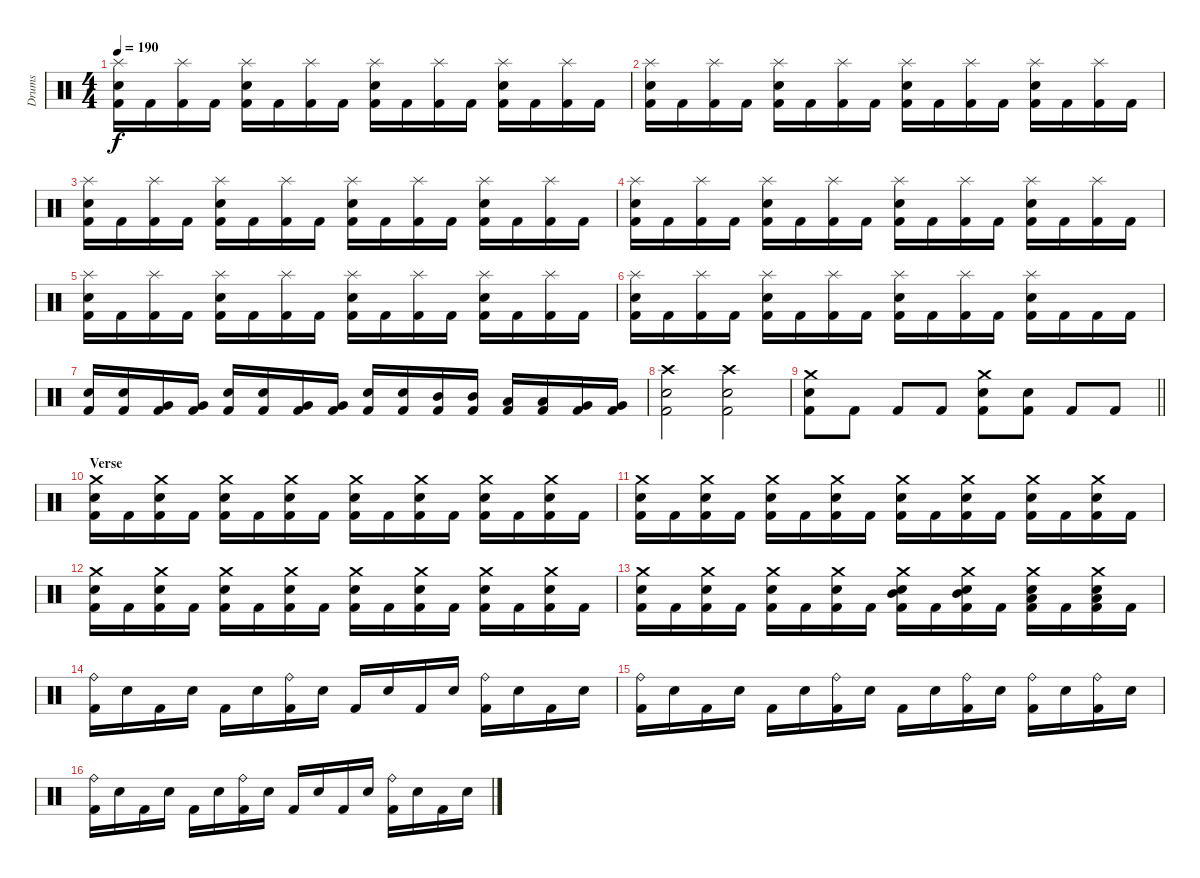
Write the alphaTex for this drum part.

\track ("Drums" "Drums") {instrument percussion}
\staff {score}
\articulation defaults
\ts (4 4)
\tempo 190
\clef neutral
\ks c
("Splash (hit)" "Snare (hit) 2" "Kick (hit) 2").16{dy f} "Kick (hit) 2".16 ("Splash (hit)" "Kick (hit) 2").16 "Kick (hit) 2".16 ("Splash (hit)" "Snare (hit) 2" "Kick (hit) 2").16 "Kick (hit) 2".16 ("Splash (hit)" "Kick (hit) 2").16 "Kick (hit) 2".16 ("Splash (hit)" "Snare (hit) 2" "Kick (hit) 2").16 "Kick (hit) 2".16 ("Splash (hit)" "Kick (hit) 2").16 "Kick (hit) 2".16 ("Splash (hit)" "Snare (hit) 2" "Kick (hit) 2").16 "Kick (hit) 2".16 ("Splash (hit)" "Kick (hit) 2").16 "Kick (hit) 2".16 |
("Splash (hit)" "Snare (hit) 2" "Kick (hit) 2").16 "Kick (hit) 2".16 ("Splash (hit)" "Kick (hit) 2").16 "Kick (hit) 2".16 ("Splash (hit)" "Snare (hit) 2" "Kick (hit) 2").16 "Kick (hit) 2".16 ("Splash (hit)" "Kick (hit) 2").16 "Kick (hit) 2".16 ("Splash (hit)" "Snare (hit) 2" "Kick (hit) 2").16 "Kick (hit) 2".16 ("Splash (hit)" "Kick (hit) 2").16 "Kick (hit) 2".16 ("Splash (hit)" "Snare (hit) 2" "Kick (hit) 2").16 "Kick (hit) 2".16 ("Splash (hit)" "Kick (hit) 2").16 "Kick (hit) 2".16 |
("Splash (hit)" "Snare (hit) 2" "Kick (hit) 2").16 "Kick (hit) 2".16 ("Splash (hit)" "Kick (hit) 2").16 "Kick (hit) 2".16 ("Splash (hit)" "Snare (hit) 2" "Kick (hit) 2").16 "Kick (hit) 2".16 ("Splash (hit)" "Kick (hit) 2").16 "Kick (hit) 2".16 ("Splash (hit)" "Snare (hit) 2" "Kick (hit) 2").16 "Kick (hit) 2".16 ("Splash (hit)" "Kick (hit) 2").16 "Kick (hit) 2".16 ("Splash (hit)" "Snare (hit) 2" "Kick (hit) 2").16 "Kick (hit) 2".16 ("Splash (hit)" "Kick (hit) 2").16 "Kick (hit) 2".16 |
("Splash (hit)" "Snare (hit) 2" "Kick (hit) 2").16 "Kick (hit) 2".16 ("Splash (hit)" "Kick (hit) 2").16 "Kick (hit) 2".16 ("Splash (hit)" "Snare (hit) 2" "Kick (hit) 2").16 "Kick (hit) 2".16 ("Splash (hit)" "Kick (hit) 2").16 "Kick (hit) 2".16 ("Splash (hit)" "Snare (hit) 2" "Kick (hit) 2").16 "Kick (hit) 2".16 ("Splash (hit)" "Kick (hit) 2").16 "Kick (hit) 2".16 ("Splash (hit)" "Snare (hit) 2" "Kick (hit) 2").16 "Kick (hit) 2".16 ("Splash (hit)" "Kick (hit) 2").16 "Kick (hit) 2".16 |
("Splash (hit)" "Snare (hit) 2" "Kick (hit) 2").16 "Kick (hit) 2".16 ("Splash (hit)" "Kick (hit) 2").16 "Kick (hit) 2".16 ("Splash (hit)" "Snare (hit) 2" "Kick (hit) 2").16 "Kick (hit) 2".16 ("Splash (hit)" "Kick (hit) 2").16 "Kick (hit) 2".16 ("Splash (hit)" "Snare (hit) 2" "Kick (hit) 2").16 "Kick (hit) 2".16 ("Splash (hit)" "Kick (hit) 2").16 "Kick (hit) 2".16 ("Splash (hit)" "Snare (hit) 2" "Kick (hit) 2").16 "Kick (hit) 2".16 ("Splash (hit)" "Kick (hit) 2").16 "Kick (hit) 2".16 |
("Splash (hit)" "Snare (hit) 2" "Kick (hit) 2").16 "Kick (hit) 2".16 ("Splash (hit)" "Kick (hit) 2").16 "Kick (hit) 2".16 ("Splash (hit)" "Snare (hit) 2" "Kick (hit) 2").16 "Kick (hit) 2".16 ("Splash (hit)" "Kick (hit) 2").16 "Kick (hit) 2".16 ("Splash (hit)" "Snare (hit) 2" "Kick (hit) 2").16 "Kick (hit) 2".16 ("Splash (hit)" "Kick (hit) 2").16 "Kick (hit) 2".16 ("Splash (hit)" "Snare (hit) 2" "Kick (hit) 2").16 "Kick (hit) 2".16 "Kick (hit) 2".16 "Kick (hit) 2".16 |
("Snare (hit) 2" "Kick (hit) 2").16 ("Snare (hit) 2" "Kick (hit) 2").16 ("Very Low Tom (hit)" "Kick (hit) 2").16 ("Very Low Tom (hit)" "Kick (hit) 2").16 ("Snare (hit) 2" "Kick (hit) 2").16 ("Snare (hit) 2" "Kick (hit) 2").16 ("Very Low Tom (hit)" "Kick (hit) 2").16 ("Very Low Tom (hit)" "Kick (hit) 2").16 ("Snare (hit) 2" "Kick (hit) 2").16 ("Snare (hit) 2" "Kick (hit) 2").16 ("Mid Tom (hit)" "Kick (hit) 2").16 ("Mid Tom (hit)" "Kick (hit) 2").16 ("Low Tom (hit)" "Kick (hit) 2").16 ("Low Tom (hit)" "Kick (hit) 2").16 ("Very Low Tom (hit)" "Kick (hit) 2").16 ("Very Low Tom (hit)" "Kick (hit) 2").16 |
("Crash high (hit)" "Snare (hit) 2" "Kick (hit) 2").2 ("Crash high (hit)" "Snare (hit) 2" "Kick (hit) 2").2 |
\barLineRight lightlight
("Crash medium (hit)" "Snare (hit) 2" "Kick (hit) 2").8 "Kick (hit) 2".8 "Kick (hit) 2".8 "Kick (hit) 2".8 ("Crash medium (hit)" "Snare (hit) 2" "Kick (hit) 2").8 ("Snare (hit) 2" "Kick (hit) 2").8 "Kick (hit) 2".8 "Kick (hit) 2".8 |
\section ("" "Verse")
("Crash medium (hit)" "Snare (hit) 2" "Kick (hit) 2").16 "Kick (hit) 2".16 ("Crash medium (hit)" "Snare (hit) 2" "Kick (hit) 2").16 "Kick (hit) 2".16 ("Crash medium (hit)" "Snare (hit) 2" "Kick (hit) 2").16 "Kick (hit) 2".16 ("Crash medium (hit)" "Snare (hit) 2" "Kick (hit) 2").16 "Kick (hit) 2".16 ("Crash medium (hit)" "Snare (hit) 2" "Kick (hit) 2").16 "Kick (hit) 2".16 ("Crash medium (hit)" "Snare (hit) 2" "Kick (hit) 2").16 "Kick (hit) 2".16 ("Crash medium (hit)" "Snare (hit) 2" "Kick (hit) 2").16 "Kick (hit) 2".16 ("Crash medium (hit)" "Snare (hit) 2" "Kick (hit) 2").16 "Kick (hit) 2".16 |
("Crash medium (hit)" "Snare (hit) 2" "Kick (hit) 2").16 "Kick (hit) 2".16 ("Crash medium (hit)" "Snare (hit) 2" "Kick (hit) 2").16 "Kick (hit) 2".16 ("Crash medium (hit)" "Snare (hit) 2" "Kick (hit) 2").16 "Kick (hit) 2".16 ("Crash medium (hit)" "Snare (hit) 2" "Kick (hit) 2").16 "Kick (hit) 2".16 ("Crash medium (hit)" "Snare (hit) 2" "Kick (hit) 2").16 "Kick (hit) 2".16 ("Crash medium (hit)" "Snare (hit) 2" "Kick (hit) 2").16 "Kick (hit) 2".16 ("Crash medium (hit)" "Snare (hit) 2" "Kick (hit) 2").16 "Kick (hit) 2".16 ("Crash medium (hit)" "Snare (hit) 2" "Kick (hit) 2").16 "Kick (hit) 2".16 |
("Crash medium (hit)" "Snare (hit) 2" "Kick (hit) 2").16 "Kick (hit) 2".16 ("Crash medium (hit)" "Snare (hit) 2" "Kick (hit) 2").16 "Kick (hit) 2".16 ("Crash medium (hit)" "Snare (hit) 2" "Kick (hit) 2").16 "Kick (hit) 2".16 ("Crash medium (hit)" "Snare (hit) 2" "Kick (hit) 2").16 "Kick (hit) 2".16 ("Crash medium (hit)" "Snare (hit) 2" "Kick (hit) 2").16 "Kick (hit) 2".16 ("Crash medium (hit)" "Snare (hit) 2" "Kick (hit) 2").16 "Kick (hit) 2".16 ("Crash medium (hit)" "Snare (hit) 2" "Kick (hit) 2").16 "Kick (hit) 2".16 ("Crash medium (hit)" "Snare (hit) 2" "Kick (hit) 2").16 "Kick (hit) 2".16 |
("Crash medium (hit)" "Snare (hit) 2" "Kick (hit) 2").16 "Kick (hit) 2".16 ("Crash medium (hit)" "Snare (hit) 2" "Kick (hit) 2").16 "Kick (hit) 2".16 ("Crash medium (hit)" "Snare (hit) 2" "Kick (hit) 2").16 "Kick (hit) 2".16 ("Crash medium (hit)" "Snare (hit) 2" "Kick (hit) 2").16 "Kick (hit) 2".16 ("Crash medium (hit)" "Mid Tom (hit)" "Snare (hit) 2" "Kick (hit) 2").16 "Kick (hit) 2".16 ("Crash medium (hit)" "Mid Tom (hit)" "Snare (hit) 2" "Kick (hit) 2").16 "Kick (hit) 2".16 ("Crash medium (hit)" "Low Tom (hit)" "Snare (hit) 2" "Kick (hit) 2").16 "Kick (hit) 2".16 ("Crash medium (hit)" "Low Tom (hit)" "Snare (hit) 2" "Kick (hit) 2").16 "Kick (hit) 2".16 |
("Ride (bell)" "Kick (hit) 2").16 "Snare (hit) 2".16 "Kick (hit) 2".16 "Snare (hit) 2".16 "Kick (hit) 2".16 "Snare (hit) 2".16 ("Ride (bell)" "Kick (hit) 2").16 "Snare (hit) 2".16 "Kick (hit) 2".16 "Snare (hit) 2".16 "Kick (hit) 2".16 "Snare (hit) 2".16 ("Ride (bell)" "Kick (hit) 2").16 "Snare (hit) 2".16 "Kick (hit) 2".16 "Snare (hit) 2".16 |
("Ride (bell)" "Kick (hit) 2").16 "Snare (hit) 2".16 "Kick (hit) 2".16 "Snare (hit) 2".16 "Kick (hit) 2".16 "Snare (hit) 2".16 ("Ride (bell)" "Kick (hit) 2").16 "Snare (hit) 2".16 "Kick (hit) 2".16 "Snare (hit) 2".16 ("Ride (bell)" "Kick (hit) 2").16 "Snare (hit) 2".16 ("Ride (bell)" "Kick (hit) 2").16 "Snare (hit) 2".16 ("Ride (bell)" "Kick (hit) 2").16 "Snare (hit) 2".16 |
("Ride (bell)" "Kick (hit) 2").16 "Snare (hit) 2".16 "Kick (hit) 2".16 "Snare (hit) 2".16 "Kick (hit) 2".16 "Snare (hit) 2".16 ("Ride (bell)" "Kick (hit) 2").16 "Snare (hit) 2".16 "Kick (hit) 2".16 "Snare (hit) 2".16 "Kick (hit) 2".16 "Snare (hit) 2".16 ("Ride (bell)" "Kick (hit) 2").16 "Snare (hit) 2".16 "Kick (hit) 2".16 "Snare (hit) 2".16
